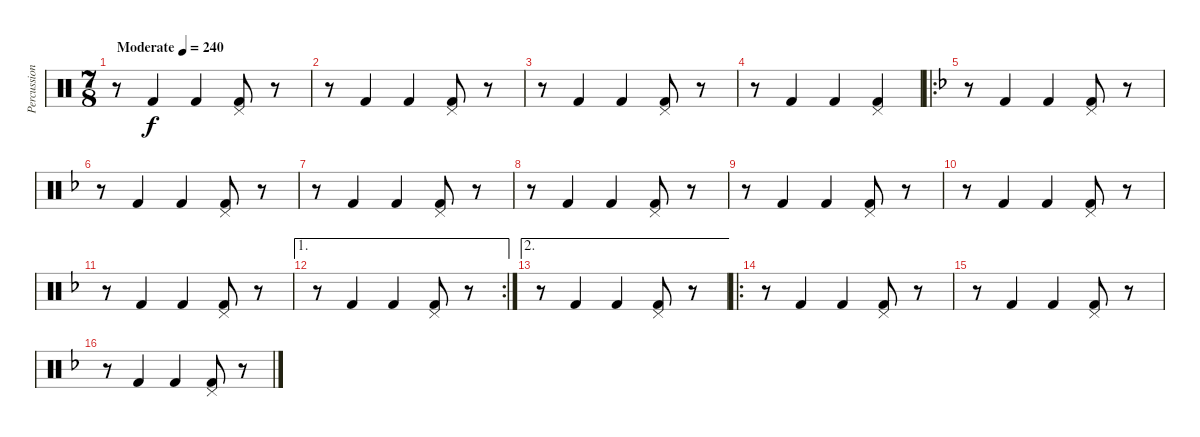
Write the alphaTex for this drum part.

\track ("Percussion" "Percussion") {instrument percussion}
\staff {score}
\articulation defaults
\ts (7 8)
\tempo (240 "Moderate")
\clef neutral
\ks c
r.8{dy f} "Kick (hit) 2".4 "Kick (hit) 2".4 ("Pedal Hi-Hat (hit)" "Kick (hit) 2").8 r.8 |
r.8 "Kick (hit) 2".4 "Kick (hit) 2".4 ("Pedal Hi-Hat (hit)" "Kick (hit) 2").8 r.8 |
r.8 "Kick (hit) 2".4 "Kick (hit) 2".4 ("Pedal Hi-Hat (hit)" "Kick (hit) 2").8 r.8 |
r.8 "Kick (hit) 2".4 "Kick (hit) 2".4 ("Pedal Hi-Hat (hit)" "Kick (hit) 2").4 |
\ro
\ks f
r.8 "Kick (hit) 2".4 "Kick (hit) 2".4 ("Pedal Hi-Hat (hit)" "Kick (hit) 2").8 r.8 |
r.8 "Kick (hit) 2".4 "Kick (hit) 2".4 ("Pedal Hi-Hat (hit)" "Kick (hit) 2").8 r.8 |
r.8 "Kick (hit) 2".4 "Kick (hit) 2".4 ("Pedal Hi-Hat (hit)" "Kick (hit) 2").8 r.8 |
r.8 "Kick (hit) 2".4 "Kick (hit) 2".4 ("Pedal Hi-Hat (hit)" "Kick (hit) 2").8 r.8 |
r.8 "Kick (hit) 2".4 "Kick (hit) 2".4 ("Pedal Hi-Hat (hit)" "Kick (hit) 2").8 r.8 |
r.8 "Kick (hit) 2".4 "Kick (hit) 2".4 ("Pedal Hi-Hat (hit)" "Kick (hit) 2").8 r.8 |
r.8 "Kick (hit) 2".4 "Kick (hit) 2".4 ("Pedal Hi-Hat (hit)" "Kick (hit) 2").8 r.8 |
\ae 1
\rc 2
r.8 "Kick (hit) 2".4 "Kick (hit) 2".4 ("Pedal Hi-Hat (hit)" "Kick (hit) 2").8 r.8 |
\ae 2
r.8 "Kick (hit) 2".4 "Kick (hit) 2".4 ("Pedal Hi-Hat (hit)" "Kick (hit) 2").8 r.8 |
\ro
r.8 "Kick (hit) 2".4 "Kick (hit) 2".4 ("Pedal Hi-Hat (hit)" "Kick (hit) 2").8 r.8 |
r.8 "Kick (hit) 2".4 "Kick (hit) 2".4 ("Pedal Hi-Hat (hit)" "Kick (hit) 2").8 r.8 |
r.8 "Kick (hit) 2".4 "Kick (hit) 2".4 ("Pedal Hi-Hat (hit)" "Kick (hit) 2").8 r.8
